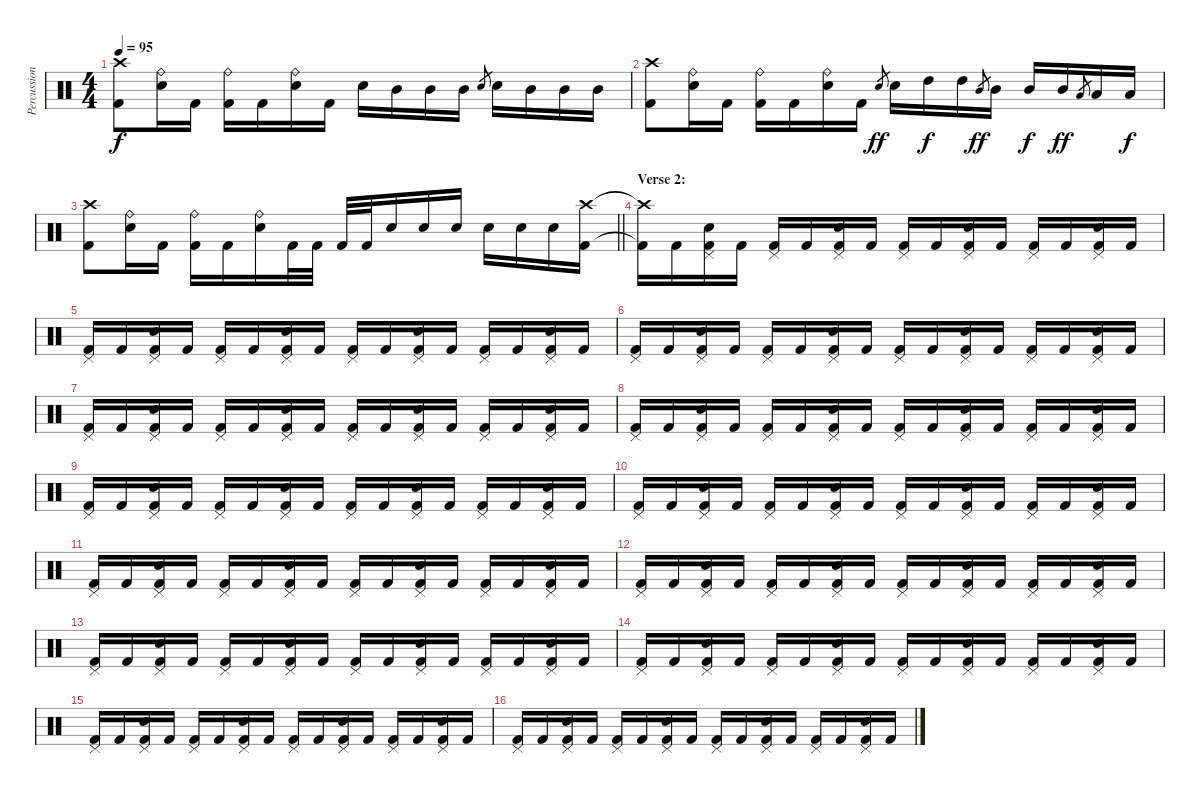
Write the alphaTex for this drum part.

\track ("Percussion" "Percussion") {instrument percussion}
\staff {score}
\articulation defaults
\ts (4 4)
\tempo 95
\clef neutral
\ks c
("Crash high (hit)" "Kick (hit) 2").8{dy f} ("Ride (bell)" "Electric Snare (hit)").16 "Kick (hit) 2".16 ("Ride (bell)" "Kick (hit) 2").16 "Kick (hit) 2".16 ("Ride (bell)" "Electric Snare (hit)").16 "Kick (hit) 2".16 "Electric Snare (hit)".16 "Mid Tom (hit)".16 "Mid Tom (hit)".16 "Mid Tom (hit)".16 "Electric Snare (hit)".8{gr} "Electric Snare (hit)".16 "Mid Tom (hit)".16 "Mid Tom (hit)".16 "Mid Tom (hit)".16 |
("Crash high (hit)" "Kick (hit) 2").8 ("Ride (bell)" "Electric Snare (hit)").16 "Kick (hit) 2".16 ("Ride (bell)" "Kick (hit) 2").16 "Kick (hit) 2".16 ("Ride (bell)" "Electric Snare (hit)").16 "Kick (hit) 2".16 "Electric Snare (hit)".8{gr dy ff} "Electric Snare (hit)".16 "High Tom (hit)".16{dy f} "High Tom (hit)".16 "Mid Tom (hit)".8{gr dy ff} "Mid Tom (hit)".16 "Mid Tom (hit)".16{dy f} "Mid Tom (hit)".16{dy ff} "Low Tom (hit)".8{gr} "Low Tom (hit)".16 "Low Tom (hit)".16{dy f} |
\barLineRight lightlight
("Crash high (hit)" "Kick (hit) 2").8 ("Ride (bell)" "Electric Snare (hit)").16 "Kick (hit) 2".16 ("Ride (bell)" "Kick (hit) 2").16 "Kick (hit) 2".16 ("Ride (bell)" "Electric Snare (hit)").16 "Kick (hit) 2".32 "Kick (hit) 2".32 "Kick (hit) 2".32 "Kick (hit) 2".32 "Electric Snare (hit)".16 "Electric Snare (hit)".16 "Electric Snare (hit)".16 "Electric Snare (hit)".16 "Electric Snare (hit)".16 "Electric Snare (hit)".16 ("Crash high (hit)" "Kick (hit) 2").16 |
\section ("" "Verse 2:")
("Crash high (hit)"{t} "Kick (hit) 2"{t}).16 "Kick (hit) 2".16 ("Pedal Hi-Hat (hit)" "Electric Snare (hit)" "Kick (hit) 2").16 "Kick (hit) 2".16 ("Pedal Hi-Hat (hit)" "Kick (hit) 2").16 "Kick (hit) 2".16 ("Pedal Hi-Hat (hit)" "Electric Snare (hit)" "Kick (hit) 2").16 "Kick (hit) 2".16 ("Pedal Hi-Hat (hit)" "Kick (hit) 2").16 "Kick (hit) 2".16 ("Pedal Hi-Hat (hit)" "Electric Snare (hit)" "Kick (hit) 2").16 "Kick (hit) 2".16 ("Pedal Hi-Hat (hit)" "Kick (hit) 2").16 "Kick (hit) 2".16 ("Pedal Hi-Hat (hit)" "Electric Snare (hit)" "Kick (hit) 2").16 "Kick (hit) 2".16 |
("Pedal Hi-Hat (hit)" "Kick (hit) 2").16 "Kick (hit) 2".16 ("Pedal Hi-Hat (hit)" "Electric Snare (hit)" "Kick (hit) 2").16 "Kick (hit) 2".16 ("Pedal Hi-Hat (hit)" "Kick (hit) 2").16 "Kick (hit) 2".16 ("Pedal Hi-Hat (hit)" "Electric Snare (hit)" "Kick (hit) 2").16 "Kick (hit) 2".16 ("Pedal Hi-Hat (hit)" "Kick (hit) 2").16 "Kick (hit) 2".16 ("Pedal Hi-Hat (hit)" "Electric Snare (hit)" "Kick (hit) 2").16 "Kick (hit) 2".16 ("Pedal Hi-Hat (hit)" "Kick (hit) 2").16 "Kick (hit) 2".16 ("Pedal Hi-Hat (hit)" "Electric Snare (hit)" "Kick (hit) 2").16 "Kick (hit) 2".16 |
("Pedal Hi-Hat (hit)" "Kick (hit) 2").16 "Kick (hit) 2".16 ("Pedal Hi-Hat (hit)" "Electric Snare (hit)" "Kick (hit) 2").16 "Kick (hit) 2".16 ("Pedal Hi-Hat (hit)" "Kick (hit) 2").16 "Kick (hit) 2".16 ("Pedal Hi-Hat (hit)" "Electric Snare (hit)" "Kick (hit) 2").16 "Kick (hit) 2".16 ("Pedal Hi-Hat (hit)" "Kick (hit) 2").16 "Kick (hit) 2".16 ("Pedal Hi-Hat (hit)" "Electric Snare (hit)" "Kick (hit) 2").16 "Kick (hit) 2".16 ("Pedal Hi-Hat (hit)" "Kick (hit) 2").16 "Kick (hit) 2".16 ("Pedal Hi-Hat (hit)" "Electric Snare (hit)" "Kick (hit) 2").16 "Kick (hit) 2".16 |
("Pedal Hi-Hat (hit)" "Kick (hit) 2").16 "Kick (hit) 2".16 ("Pedal Hi-Hat (hit)" "Electric Snare (hit)" "Kick (hit) 2").16 "Kick (hit) 2".16 ("Pedal Hi-Hat (hit)" "Kick (hit) 2").16 "Kick (hit) 2".16 ("Pedal Hi-Hat (hit)" "Electric Snare (hit)" "Kick (hit) 2").16 "Kick (hit) 2".16 ("Pedal Hi-Hat (hit)" "Kick (hit) 2").16 "Kick (hit) 2".16 ("Pedal Hi-Hat (hit)" "Electric Snare (hit)" "Kick (hit) 2").16 "Kick (hit) 2".16 ("Pedal Hi-Hat (hit)" "Kick (hit) 2").16 "Kick (hit) 2".16 ("Pedal Hi-Hat (hit)" "Electric Snare (hit)" "Kick (hit) 2").16 "Kick (hit) 2".16 |
("Pedal Hi-Hat (hit)" "Kick (hit) 2").16 "Kick (hit) 2".16 ("Pedal Hi-Hat (hit)" "Electric Snare (hit)" "Kick (hit) 2").16 "Kick (hit) 2".16 ("Pedal Hi-Hat (hit)" "Kick (hit) 2").16 "Kick (hit) 2".16 ("Pedal Hi-Hat (hit)" "Electric Snare (hit)" "Kick (hit) 2").16 "Kick (hit) 2".16 ("Pedal Hi-Hat (hit)" "Kick (hit) 2").16 "Kick (hit) 2".16 ("Pedal Hi-Hat (hit)" "Electric Snare (hit)" "Kick (hit) 2").16 "Kick (hit) 2".16 ("Pedal Hi-Hat (hit)" "Kick (hit) 2").16 "Kick (hit) 2".16 ("Pedal Hi-Hat (hit)" "Electric Snare (hit)" "Kick (hit) 2").16 "Kick (hit) 2".16 |
("Pedal Hi-Hat (hit)" "Kick (hit) 2").16 "Kick (hit) 2".16 ("Pedal Hi-Hat (hit)" "Electric Snare (hit)" "Kick (hit) 2").16 "Kick (hit) 2".16 ("Pedal Hi-Hat (hit)" "Kick (hit) 2").16 "Kick (hit) 2".16 ("Pedal Hi-Hat (hit)" "Electric Snare (hit)" "Kick (hit) 2").16 "Kick (hit) 2".16 ("Pedal Hi-Hat (hit)" "Kick (hit) 2").16 "Kick (hit) 2".16 ("Pedal Hi-Hat (hit)" "Electric Snare (hit)" "Kick (hit) 2").16 "Kick (hit) 2".16 ("Pedal Hi-Hat (hit)" "Kick (hit) 2").16 "Kick (hit) 2".16 ("Pedal Hi-Hat (hit)" "Electric Snare (hit)" "Kick (hit) 2").16 "Kick (hit) 2".16 |
("Pedal Hi-Hat (hit)" "Kick (hit) 2").16 "Kick (hit) 2".16 ("Pedal Hi-Hat (hit)" "Electric Snare (hit)" "Kick (hit) 2").16 "Kick (hit) 2".16 ("Pedal Hi-Hat (hit)" "Kick (hit) 2").16 "Kick (hit) 2".16 ("Pedal Hi-Hat (hit)" "Electric Snare (hit)" "Kick (hit) 2").16 "Kick (hit) 2".16 ("Pedal Hi-Hat (hit)" "Kick (hit) 2").16 "Kick (hit) 2".16 ("Pedal Hi-Hat (hit)" "Electric Snare (hit)" "Kick (hit) 2").16 "Kick (hit) 2".16 ("Pedal Hi-Hat (hit)" "Kick (hit) 2").16 "Kick (hit) 2".16 ("Pedal Hi-Hat (hit)" "Electric Snare (hit)" "Kick (hit) 2").16 "Kick (hit) 2".16 |
("Pedal Hi-Hat (hit)" "Kick (hit) 2").16 "Kick (hit) 2".16 ("Pedal Hi-Hat (hit)" "Electric Snare (hit)" "Kick (hit) 2").16 "Kick (hit) 2".16 ("Pedal Hi-Hat (hit)" "Kick (hit) 2").16 "Kick (hit) 2".16 ("Pedal Hi-Hat (hit)" "Electric Snare (hit)" "Kick (hit) 2").16 "Kick (hit) 2".16 ("Pedal Hi-Hat (hit)" "Kick (hit) 2").16 "Kick (hit) 2".16 ("Pedal Hi-Hat (hit)" "Electric Snare (hit)" "Kick (hit) 2").16 "Kick (hit) 2".16 ("Pedal Hi-Hat (hit)" "Kick (hit) 2").16 "Kick (hit) 2".16 ("Pedal Hi-Hat (hit)" "Electric Snare (hit)" "Kick (hit) 2").16 "Kick (hit) 2".16 |
("Pedal Hi-Hat (hit)" "Kick (hit) 2").16 "Kick (hit) 2".16 ("Pedal Hi-Hat (hit)" "Electric Snare (hit)" "Kick (hit) 2").16 "Kick (hit) 2".16 ("Pedal Hi-Hat (hit)" "Kick (hit) 2").16 "Kick (hit) 2".16 ("Pedal Hi-Hat (hit)" "Electric Snare (hit)" "Kick (hit) 2").16 "Kick (hit) 2".16 ("Pedal Hi-Hat (hit)" "Kick (hit) 2").16 "Kick (hit) 2".16 ("Pedal Hi-Hat (hit)" "Electric Snare (hit)" "Kick (hit) 2").16 "Kick (hit) 2".16 ("Pedal Hi-Hat (hit)" "Kick (hit) 2").16 "Kick (hit) 2".16 ("Pedal Hi-Hat (hit)" "Electric Snare (hit)" "Kick (hit) 2").16 "Kick (hit) 2".16 |
("Pedal Hi-Hat (hit)" "Kick (hit) 2").16 "Kick (hit) 2".16 ("Pedal Hi-Hat (hit)" "Electric Snare (hit)" "Kick (hit) 2").16 "Kick (hit) 2".16 ("Pedal Hi-Hat (hit)" "Kick (hit) 2").16 "Kick (hit) 2".16 ("Pedal Hi-Hat (hit)" "Electric Snare (hit)" "Kick (hit) 2").16 "Kick (hit) 2".16 ("Pedal Hi-Hat (hit)" "Kick (hit) 2").16 "Kick (hit) 2".16 ("Pedal Hi-Hat (hit)" "Electric Snare (hit)" "Kick (hit) 2").16 "Kick (hit) 2".16 ("Pedal Hi-Hat (hit)" "Kick (hit) 2").16 "Kick (hit) 2".16 ("Pedal Hi-Hat (hit)" "Electric Snare (hit)" "Kick (hit) 2").16 "Kick (hit) 2".16 |
("Pedal Hi-Hat (hit)" "Kick (hit) 2").16 "Kick (hit) 2".16 ("Pedal Hi-Hat (hit)" "Electric Snare (hit)" "Kick (hit) 2").16 "Kick (hit) 2".16 ("Pedal Hi-Hat (hit)" "Kick (hit) 2").16 "Kick (hit) 2".16 ("Pedal Hi-Hat (hit)" "Electric Snare (hit)" "Kick (hit) 2").16 "Kick (hit) 2".16 ("Pedal Hi-Hat (hit)" "Kick (hit) 2").16 "Kick (hit) 2".16 ("Pedal Hi-Hat (hit)" "Electric Snare (hit)" "Kick (hit) 2").16 "Kick (hit) 2".16 ("Pedal Hi-Hat (hit)" "Kick (hit) 2").16 "Kick (hit) 2".16 ("Pedal Hi-Hat (hit)" "Electric Snare (hit)" "Kick (hit) 2").16 "Kick (hit) 2".16 |
("Pedal Hi-Hat (hit)" "Kick (hit) 2").16 "Kick (hit) 2".16 ("Pedal Hi-Hat (hit)" "Electric Snare (hit)" "Kick (hit) 2").16 "Kick (hit) 2".16 ("Pedal Hi-Hat (hit)" "Kick (hit) 2").16 "Kick (hit) 2".16 ("Pedal Hi-Hat (hit)" "Electric Snare (hit)" "Kick (hit) 2").16 "Kick (hit) 2".16 ("Pedal Hi-Hat (hit)" "Kick (hit) 2").16 "Kick (hit) 2".16 ("Pedal Hi-Hat (hit)" "Electric Snare (hit)" "Kick (hit) 2").16 "Kick (hit) 2".16 ("Pedal Hi-Hat (hit)" "Kick (hit) 2").16 "Kick (hit) 2".16 ("Pedal Hi-Hat (hit)" "Electric Snare (hit)" "Kick (hit) 2").16 "Kick (hit) 2".16 |
("Pedal Hi-Hat (hit)" "Kick (hit) 2").16 "Kick (hit) 2".16 ("Pedal Hi-Hat (hit)" "Electric Snare (hit)" "Kick (hit) 2").16 "Kick (hit) 2".16 ("Pedal Hi-Hat (hit)" "Kick (hit) 2").16 "Kick (hit) 2".16 ("Pedal Hi-Hat (hit)" "Electric Snare (hit)" "Kick (hit) 2").16 "Kick (hit) 2".16 ("Pedal Hi-Hat (hit)" "Kick (hit) 2").16 "Kick (hit) 2".16 ("Pedal Hi-Hat (hit)" "Electric Snare (hit)" "Kick (hit) 2").16 "Kick (hit) 2".16 ("Pedal Hi-Hat (hit)" "Kick (hit) 2").16 "Kick (hit) 2".16 ("Pedal Hi-Hat (hit)" "Electric Snare (hit)" "Kick (hit) 2").16 "Kick (hit) 2".16
